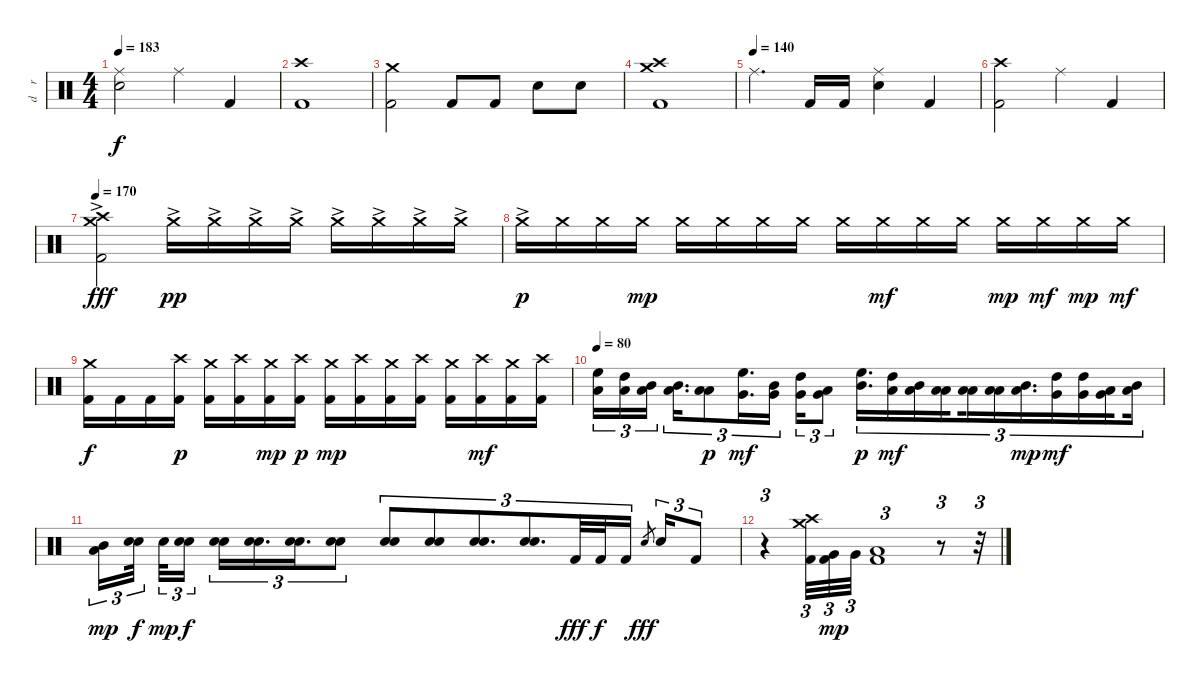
\track ("d    r     u    m    s" "d    r    ") {instrument percussion}
\staff {score}
\articulation defaults
\ts (4 4)
\tempo 183
\clef neutral
\ks c
("Ride (middle)" "Snare (hit) 2").2{dy f} "Ride (middle)".4 "Kick (hit) 2".4 |
("Crash high (hit)" "Kick (hit) 2").1 |
("Crash medium (hit)" "Kick (hit) 2").2 "Kick (hit) 2".8 "Kick (hit) 2".8 "Snare (hit) 2".8 "Snare (hit) 2".8 |
("Crash high (hit)" "Crash medium (hit)" "Kick (hit) 2").1 |
\tempo (140)
"Ride (middle)".4{d} "Kick (hit) 2".16 "Kick (hit) 2".16 ("Ride (middle)" "Snare (hit) 2").4 "Kick (hit) 2".4 |
("Crash high (hit)" "Kick (hit) 2").2 "Ride (middle)".4 "Kick (hit) 2".4 |
\tempo 170
("Crash high (hit)"{ac} "Crash medium (hit)" "Kick (hit) 2").2{dy fff} "Crash medium (hit)"{ac}.16{dy pp} "Crash medium (hit)"{ac}.16 "Crash medium (hit)"{ac}.16 "Crash medium (hit)"{ac}.16 "Crash medium (hit)"{ac}.16 "Crash medium (hit)"{ac}.16 "Crash medium (hit)"{ac}.16 "Crash medium (hit)"{ac}.16 |
"Crash medium (hit)"{ac}.16{dy p} "Crash medium (hit)".16 "Crash medium (hit)".16 "Crash medium (hit)".16{dy mp} "Crash medium (hit)".16 "Crash medium (hit)".16 "Crash medium (hit)".16 "Crash medium (hit)".16 "Crash medium (hit)".16 "Crash medium (hit)".16{dy mf} "Crash medium (hit)".16 "Crash medium (hit)".16 "Crash medium (hit)".16{dy mp} "Crash medium (hit)".16{dy mf} "Crash medium (hit)".16{dy mp} "Crash medium (hit)".16{dy mf} |
("Crash medium (hit)" "Kick (hit) 2").16{dy f} "Kick (hit) 2".16 "Kick (hit) 2".16 ("Crash high (hit)" "Kick (hit) 2").16{dy p} ("Crash medium (hit)" "Kick (hit) 2").16 ("Crash high (hit)" "Kick (hit) 2").16 ("Crash medium (hit)" "Kick (hit) 2").16{dy mp} ("Crash high (hit)" "Kick (hit) 2").16{dy p} ("Crash medium (hit)" "Kick (hit) 2").16{dy mp} ("Crash high (hit)" "Kick (hit) 2").16 ("Crash medium (hit)" "Kick (hit) 2").16 ("Crash high (hit)" "Kick (hit) 2").16 ("Crash medium (hit)" "Kick (hit) 2").16 ("Crash high (hit)" "Kick (hit) 2").16{dy mf} ("Crash medium (hit)" "Kick (hit) 2").16 ("Crash high (hit)" "Kick (hit) 2").16 |
\tempo 80
("High Floor Tom (hit)" "Low Floor Tom (hit)").16{tu (3 2)} ("High Tom (hit)" "Low Floor Tom (hit)").16{tu (3 2)} ("Mid Tom (hit)" "Low Floor Tom (hit)").16{tu (3 2) beam splitsecondary} ("Mid Tom (hit)" "Low Floor Tom (hit)").16{d tu (3 2)} ("Low Tom (hit)" "Low Floor Tom (hit)").8{tu (3 2) dy p} ("High Floor Tom (hit)" "Very Low Tom (hit)").16{d tu (3 2) dy mf} ("Mid Tom (hit)" "Very Low Tom (hit)").16{tu (3 2)} ("High Tom (hit)" "Very Low Tom (hit)").16{tu (3 2)} ("Low Tom (hit)" "Very Low Tom (hit)").8{tu (3 2)} ("High Floor Tom (hit)" "Mid Tom (hit)").16{d tu (3 2) dy p} ("High Tom (hit)" "Low Floor Tom (hit)").16{tu (3 2) dy mf} ("Mid Tom (hit)" "Low Floor Tom (hit)").16{tu (3 2)} ("Low Tom (hit)" "Low Floor Tom (hit)").16{tu (3 2) beam splitsecondary} ("Low Tom (hit)" "Low Floor Tom (hit)").16{tu (3 2)} ("Low Tom (hit)" "Low Floor Tom (hit)").16{tu (3 2)} ("Low Tom (hit)" "Mid Tom (hit)").16{d tu (3 2) dy mp} ("High Tom (hit)" "Very Low Tom (hit)").16{tu (3 2) dy mf} ("High Tom (hit)" "Very Low Tom (hit)").16{tu (3 2)} ("Low Tom (hit)" "Very Low Tom (hit)").16{tu (3 2) beam splitsecondary} ("Mid Tom (hit)" "Low Floor Tom (hit)").16{tu (3 2)} |
("Low Floor Tom (hit)" "Mid Tom (hit)").16{tu (3 2) dy mp} ("Snare (hit) 2" "Electric Snare (hit)").32{tu (3 2) dy f beam splitsecondary} "Snare (hit) 2".32{tu (3 2) dy mp} ("Snare (hit) 2" "Electric Snare (hit)").16{tu (3 2) dy f beam splitsecondary} ("Snare (hit) 2" "Electric Snare (hit)").16{tu (3 2)} ("Snare (hit) 2" "Electric Snare (hit)").16{d tu (3 2)} ("Snare (hit) 2" "Electric Snare (hit)").16{d tu (3 2)} ("Snare (hit) 2" "Electric Snare (hit)").8{tu (3 2)} ("Snare (hit) 2" "Electric Snare (hit)").8{tu (3 2)} ("Snare (hit) 2" "Electric Snare (hit)").8{tu (3 2)} ("Snare (hit) 2" "Electric Snare (hit)").8{d tu (3 2)} ("Snare (hit) 2" "Electric Snare (hit)").8{d tu (3 2)} "Kick (hit) 2".32{tu (3 2) dy fff} "Kick (hit) 2".32{tu (3 2) dy f} "Kick (hit) 2".16{tu (3 2)} "Electric Snare (hit)".8{gr dy fff} "Electric Snare (hit)".16{tu (3 2)} "Kick (hit) 2".8{tu (3 2)} |
r.4{tu (3 2)} ("Crash high (hit)" "Crash medium (hit)" "Kick (hit) 2").32{tu (3 2)} ("Very Low Tom (hit)" "Kick (hit) 2").32{tu (3 2) dy mp} "Very Low Tom (hit)".32{tu (3 2)} ("Low Floor Tom (hit)" "Kick (hit) 2").1{tu (3 2)} r.8{tu (3 2)} r.32{tu (3 2)}
